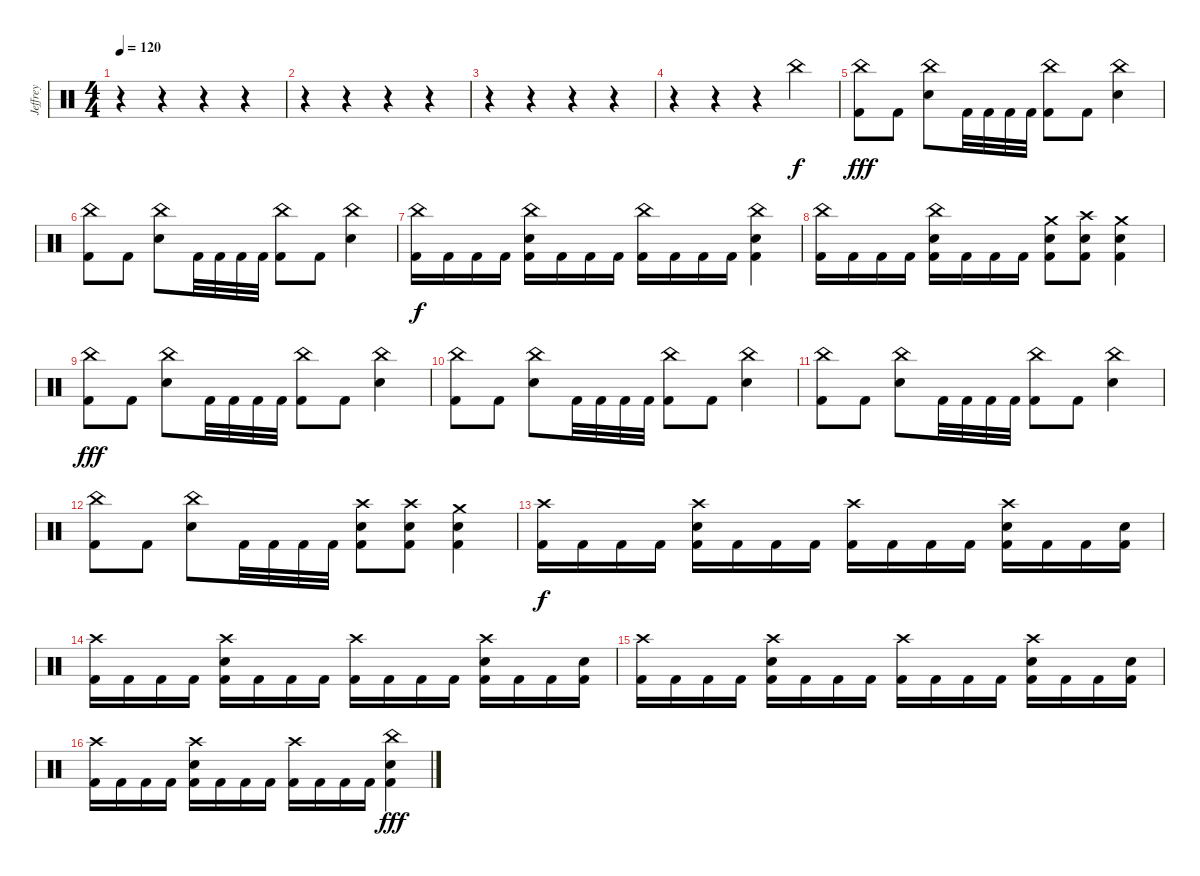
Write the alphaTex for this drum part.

\track ("Jeffrey" "Jeffrey") {instrument percussion}
\staff {score}
\articulation defaults
\ts (4 4)
\tempo 120
\clef neutral
\ks c
r.4{dy f} r.4 r.4 r.4 |
r.4 r.4 r.4 r.4 |
r.4 r.4 r.4 r.4 |
r.4 r.4 r.4 "China (hit)".4 |
("China (hit)" "Kick (hit) 2").8{dy fff} "Kick (hit) 2".8 ("China (hit)" "Electric Snare (hit)").8 "Kick (hit) 2".32 "Kick (hit) 2".32 "Kick (hit) 2".32 "Kick (hit) 2".32 ("China (hit)" "Kick (hit) 2").8 "Kick (hit) 2".8 ("China (hit)" "Electric Snare (hit)").4 |
("China (hit)" "Kick (hit) 2").8 "Kick (hit) 2".8 ("China (hit)" "Electric Snare (hit)").8 "Kick (hit) 2".32 "Kick (hit) 2".32 "Kick (hit) 2".32 "Kick (hit) 2".32 ("China (hit)" "Kick (hit) 2").8 "Kick (hit) 2".8 ("China (hit)" "Electric Snare (hit)").4 |
("China (hit)" "Kick (hit) 2").16{dy f} "Kick (hit) 2".16 "Kick (hit) 2".16 "Kick (hit) 2".16 ("China (hit)" "Electric Snare (hit)" "Kick (hit) 2").16 "Kick (hit) 2".16 "Kick (hit) 2".16 "Kick (hit) 2".16 ("China (hit)" "Kick (hit) 2").16 "Kick (hit) 2".16 "Kick (hit) 2".16 "Kick (hit) 2".16 ("China (hit)" "Electric Snare (hit)" "Kick (hit) 2").4 |
("China (hit)" "Kick (hit) 2").16 "Kick (hit) 2".16 "Kick (hit) 2".16 "Kick (hit) 2".16 ("China (hit)" "Electric Snare (hit)" "Kick (hit) 2").16 "Kick (hit) 2".16 "Kick (hit) 2".16 "Kick (hit) 2".16 ("Crash medium (hit)" "Electric Snare (hit)" "Kick (hit) 2").8 ("Crash high (hit)" "Electric Snare (hit)" "Kick (hit) 2").8 ("Crash medium (hit)" "Electric Snare (hit)" "Kick (hit) 2").4 |
("China (hit)" "Kick (hit) 2").8{dy fff} "Kick (hit) 2".8 ("China (hit)" "Electric Snare (hit)").8 "Kick (hit) 2".32 "Kick (hit) 2".32 "Kick (hit) 2".32 "Kick (hit) 2".32 ("China (hit)" "Kick (hit) 2").8 "Kick (hit) 2".8 ("China (hit)" "Electric Snare (hit)").4 |
("China (hit)" "Kick (hit) 2").8 "Kick (hit) 2".8 ("China (hit)" "Electric Snare (hit)").8 "Kick (hit) 2".32 "Kick (hit) 2".32 "Kick (hit) 2".32 "Kick (hit) 2".32 ("China (hit)" "Kick (hit) 2").8 "Kick (hit) 2".8 ("China (hit)" "Electric Snare (hit)").4 |
("China (hit)" "Kick (hit) 2").8 "Kick (hit) 2".8 ("China (hit)" "Electric Snare (hit)").8 "Kick (hit) 2".32 "Kick (hit) 2".32 "Kick (hit) 2".32 "Kick (hit) 2".32 ("China (hit)" "Kick (hit) 2").8 "Kick (hit) 2".8 ("China (hit)" "Electric Snare (hit)").4 |
("China (hit)" "Kick (hit) 2").8 "Kick (hit) 2".8 ("China (hit)" "Electric Snare (hit)").8 "Kick (hit) 2".32 "Kick (hit) 2".32 "Kick (hit) 2".32 "Kick (hit) 2".32 ("Crash high (hit)" "Electric Snare (hit)" "Kick (hit) 2").8 ("Crash high (hit)" "Electric Snare (hit)" "Kick (hit) 2").8 ("Crash medium (hit)" "Electric Snare (hit)" "Kick (hit) 2").4 |
("Crash high (hit)" "Kick (hit) 2").16{dy f} "Kick (hit) 2".16 "Kick (hit) 2".16 "Kick (hit) 2".16 ("Crash high (hit)" "Electric Snare (hit)" "Kick (hit) 2").16 "Kick (hit) 2".16 "Kick (hit) 2".16 "Kick (hit) 2".16 ("Crash high (hit)" "Kick (hit) 2").16 "Kick (hit) 2".16 "Kick (hit) 2".16 "Kick (hit) 2".16 ("Crash high (hit)" "Electric Snare (hit)" "Kick (hit) 2").16 "Kick (hit) 2".16 "Kick (hit) 2".16 ("Electric Snare (hit)" "Kick (hit) 2").16 |
("Crash high (hit)" "Kick (hit) 2").16 "Kick (hit) 2".16 "Kick (hit) 2".16 "Kick (hit) 2".16 ("Crash high (hit)" "Electric Snare (hit)" "Kick (hit) 2").16 "Kick (hit) 2".16 "Kick (hit) 2".16 "Kick (hit) 2".16 ("Crash high (hit)" "Kick (hit) 2").16 "Kick (hit) 2".16 "Kick (hit) 2".16 "Kick (hit) 2".16 ("Crash high (hit)" "Electric Snare (hit)" "Kick (hit) 2").16 "Kick (hit) 2".16 "Kick (hit) 2".16 ("Electric Snare (hit)" "Kick (hit) 2").16 |
("Crash high (hit)" "Kick (hit) 2").16 "Kick (hit) 2".16 "Kick (hit) 2".16 "Kick (hit) 2".16 ("Crash high (hit)" "Electric Snare (hit)" "Kick (hit) 2").16 "Kick (hit) 2".16 "Kick (hit) 2".16 "Kick (hit) 2".16 ("Crash high (hit)" "Kick (hit) 2").16 "Kick (hit) 2".16 "Kick (hit) 2".16 "Kick (hit) 2".16 ("Crash high (hit)" "Electric Snare (hit)" "Kick (hit) 2").16 "Kick (hit) 2".16 "Kick (hit) 2".16 ("Electric Snare (hit)" "Kick (hit) 2").16 |
("Crash high (hit)" "Kick (hit) 2").16 "Kick (hit) 2".16 "Kick (hit) 2".16 "Kick (hit) 2".16 ("Crash high (hit)" "Electric Snare (hit)" "Kick (hit) 2").16 "Kick (hit) 2".16 "Kick (hit) 2".16 "Kick (hit) 2".16 ("Crash high (hit)" "Kick (hit) 2").16 "Kick (hit) 2".16 "Kick (hit) 2".16 "Kick (hit) 2".16 ("China (hit)" "Electric Snare (hit)" "Kick (hit) 2").4{dy fff}
